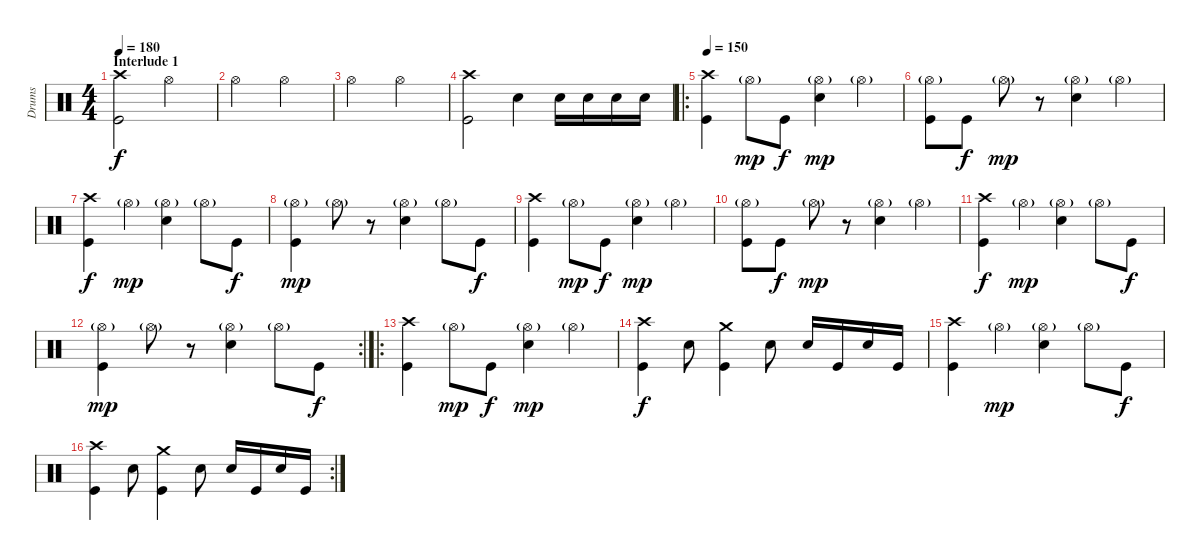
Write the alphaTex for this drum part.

\track ("Drums" "Drums") {instrument percussion}
\staff {score}
\articulation defaults
\ts (4 4)
\section ("" "Interlude 1")
\tempo 180
\clef neutral
\ks c
("Crash high (hit)" "Kick (hit)").2{dy f} "Hi-Hat (open)".2 |
"Hi-Hat (open)".2 "Hi-Hat (open)".2 |
"Hi-Hat (open)".2 "Hi-Hat (open)".2 |
("Crash high (hit)" "Kick (hit)").2 "Electric Snare (hit)".4 "Electric Snare (hit)".16 "Electric Snare (hit)".16 "Electric Snare (hit)".16 "Electric Snare (hit)".16 |
\ro
\tempo 150
("Crash high (hit)" "Kick (hit)").4 "Hi-Hat (open)"{g}.8{dy mp} "Kick (hit)".8{dy f} ("Hi-Hat (open)"{g} "Snare (hit) 2").4{dy mp} "Hi-Hat (open)"{g}.4 |
("Hi-Hat (open)"{g} "Kick (hit)").8 "Kick (hit)".8{dy f} "Hi-Hat (open)"{g}.8{dy mp} r.8 ("Hi-Hat (open)"{g} "Snare (hit) 2").4 "Hi-Hat (open)"{g}.4 |
("Crash high (hit)" "Kick (hit)").4{dy f} "Hi-Hat (open)"{g}.4{dy mp} ("Hi-Hat (open)"{g} "Snare (hit) 2").4 "Hi-Hat (open)"{g}.8 "Kick (hit)".8{dy f} |
("Hi-Hat (open)"{g} "Kick (hit)").4{dy mp} "Hi-Hat (open)"{g}.8 r.8 ("Hi-Hat (open)"{g} "Snare (hit) 2").4 "Hi-Hat (open)"{g}.8 "Kick (hit)".8{dy f} |
("Crash high (hit)" "Kick (hit)").4 "Hi-Hat (open)"{g}.8{dy mp} "Kick (hit)".8{dy f} ("Hi-Hat (open)"{g} "Snare (hit) 2").4{dy mp} "Hi-Hat (open)"{g}.4 |
("Hi-Hat (open)"{g} "Kick (hit)").8 "Kick (hit)".8{dy f} "Hi-Hat (open)"{g}.8{dy mp} r.8 ("Hi-Hat (open)"{g} "Snare (hit) 2").4 "Hi-Hat (open)"{g}.4 |
("Crash high (hit)" "Kick (hit)").4{dy f} "Hi-Hat (open)"{g}.4{dy mp} ("Hi-Hat (open)"{g} "Snare (hit) 2").4 "Hi-Hat (open)"{g}.8 "Kick (hit)".8{dy f} |
\rc 2
("Hi-Hat (open)"{g} "Kick (hit)").4{dy mp} "Hi-Hat (open)"{g}.8 r.8 ("Hi-Hat (open)"{g} "Snare (hit) 2").4 "Hi-Hat (open)"{g}.8 "Kick (hit)".8{dy f} |
\ro
("Crash high (hit)" "Kick (hit)").4 "Hi-Hat (open)"{g}.8{dy mp} "Kick (hit)".8{dy f} ("Hi-Hat (open)"{g} "Snare (hit) 2").4{dy mp} "Hi-Hat (open)"{g}.4 |
("Crash high (hit)" "Kick (hit)").4{dy f} "Electric Snare (hit)".8 ("Crash medium (hit)" "Kick (hit)").4 "Electric Snare (hit)".8 "Snare (hit) 2".16 "Kick (hit)".16 "Snare (hit) 2".16 "Kick (hit)".16 |
("Crash high (hit)" "Kick (hit)").4 "Hi-Hat (open)"{g}.4{dy mp} ("Hi-Hat (open)"{g} "Snare (hit) 2").4 "Hi-Hat (open)"{g}.8 "Kick (hit)".8{dy f} |
\rc 2
("Crash high (hit)" "Kick (hit)").4 "Electric Snare (hit)".8 ("Crash medium (hit)" "Kick (hit)").4 "Electric Snare (hit)".8 "Snare (hit) 2".16 "Kick (hit)".16 "Snare (hit) 2".16 "Kick (hit)".16
